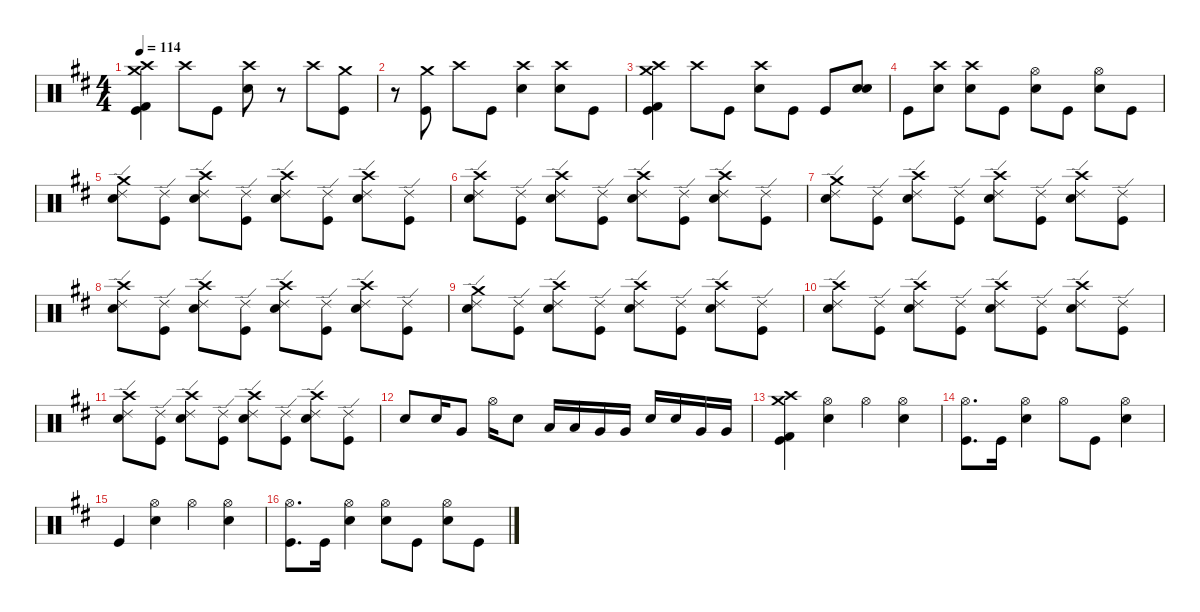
\defaultSystemsLayout 4
\hideDynamics
\bracketExtendMode nobrackets
\singleTrackTrackNamePolicy hidden
\multiTrackTrackNamePolicy hidden
\firstSystemTrackNameMode fullname
\firstSystemTrackNameOrientation horizontal
\otherSystemsTrackNameOrientation horizontal
\track ("Aaron Harris" "drm.") {instrument percussion}
\staff {score}
\articulation defaults
\ts (4 4)
\tempo 114
\clef neutral
\ks bminor
("Crash medium (hit)"{acc forcenatural} "Crash high (hit)"{acc forcenatural} "Kick (hit) 2"{acc forcenatural} "Kick (hit)"{acc forcenatural}).4{dy f beam Down} "Crash high (hit)"{acc forcenatural}.8{beam Down} "Kick (hit)"{acc forcenatural}.8{beam Down} ("Crash high (hit)"{acc forcenatural} "Snare (hit) 2"{acc forcenatural}).8{beam Down} r.8{beam Down} "Crash high (hit)"{acc forcenatural}.8{beam Down} ("Crash medium (hit)"{acc forcenatural} "Kick (hit)"{acc forcenatural}).8{dy ff beam Down} |
r.8{beam Down} ("Crash medium (hit)"{acc forcenatural} "Kick (hit)"{acc forcenatural}).8{dy f beam Down} "Crash high (hit)"{acc forcenatural}.8{beam Down} "Kick (hit)"{acc forcenatural}.8{beam Down} ("Crash high (hit)"{acc forcenatural} "Snare (hit) 2"{acc forcenatural}).4{beam Down} ("Crash high (hit)"{acc forcenatural} "Snare (hit) 2"{acc forcenatural}).8{beam Down} "Kick (hit)"{acc forcenatural}.8{beam Down} |
("Crash medium (hit)"{acc forcenatural} "Crash high (hit)"{acc forcenatural} "Kick (hit) 2"{acc forcenatural} "Kick (hit)"{acc forcenatural}).4{beam Down} "Crash high (hit)"{acc forcenatural}.8{beam Down} "Kick (hit)"{acc forcenatural}.8{beam Down} ("Crash high (hit)"{acc forcenatural} "Snare (hit) 2"{acc forcenatural}).8{dy ff beam Down} "Kick (hit)"{acc forcenatural}.8{beam Down} "Kick (hit)"{acc forcenatural}.8{beam Up} ("Snare (hit) 2"{acc forcenatural} "Snare (hit) 2"{acc forcenatural}).8{beam Up} |
"Kick (hit)"{acc forcenatural}.8{beam Down} ("Crash high (hit)"{acc forcenatural} "Snare (hit) 2"{acc forcenatural}).8{beam Down} ("Crash high (hit)"{acc forcenatural} "Snare (hit) 2"{acc forcenatural}).8{beam Down} "Kick (hit)"{acc forcenatural}.8{dy f beam Down} ("Hi-Hat (open)"{acc forcenatural} "Snare (hit) 2"{acc forcenatural}).8{dy ff beam Down} "Kick (hit)"{acc forcenatural}.8{dy f beam Down} ("Hi-Hat (open)"{acc forcenatural} "Snare (hit) 2"{acc forcenatural}).8{beam Down} "Kick (hit)"{acc forcenatural}.8{beam Down} |
("Crash medium (hit)"{acc forcenatural} "Ride (edge) 2"{acc forcenatural} "Snare (hit) 2"{acc forcenatural}).8{beam Down} ("Ride (edge) 2"{acc forcenatural} "Kick (hit)"{acc forcenatural}).8{beam Down} ("Crash high (hit)"{acc forcenatural} "Ride (edge) 2"{acc forcenatural} "Snare (hit) 2"{acc forcenatural}).8{beam Down} ("Ride (edge) 2"{acc forcenatural} "Kick (hit)"{acc forcenatural}).8{beam Down} ("Crash high (hit)"{acc forcenatural} "Ride (edge) 2"{acc forcenatural} "Snare (hit) 2"{acc forcenatural}).8{beam Down} ("Ride (edge) 2"{acc forcenatural} "Kick (hit)"{acc forcenatural}).8{beam Down} ("Crash high (hit)"{acc forcenatural} "Ride (edge) 2"{acc forcenatural} "Snare (hit) 2"{acc forcenatural}).8{beam Down} ("Ride (edge) 2"{acc forcenatural} "Kick (hit)"{acc forcenatural}).8{beam Down} |
("Crash high (hit)"{acc forcenatural} "Ride (edge) 2"{acc forcenatural} "Snare (hit) 2"{acc forcenatural}).8{beam Down} ("Ride (edge) 2"{acc forcenatural} "Kick (hit)"{acc forcenatural}).8{beam Down} ("Crash high (hit)"{acc forcenatural} "Ride (edge) 2"{acc forcenatural} "Snare (hit) 2"{acc forcenatural}).8{beam Down} ("Ride (edge) 2"{acc forcenatural} "Kick (hit)"{acc forcenatural}).8{beam Down} ("Crash high (hit)"{acc forcenatural} "Ride (edge) 2"{acc forcenatural} "Snare (hit) 2"{acc forcenatural}).8{beam Down} ("Ride (edge) 2"{acc forcenatural} "Kick (hit)"{acc forcenatural}).8{beam Down} ("Crash high (hit)"{acc forcenatural} "Ride (edge) 2"{acc forcenatural} "Snare (hit) 2"{acc forcenatural}).8{beam Down} ("Ride (edge) 2"{acc forcenatural} "Kick (hit)"{acc forcenatural}).8{beam Down} |
("Crash medium (hit)"{acc forcenatural} "Ride (edge) 2"{acc forcenatural} "Snare (hit) 2"{acc forcenatural}).8{beam Down} ("Ride (edge) 2"{acc forcenatural} "Kick (hit)"{acc forcenatural}).8{beam Down} ("Crash high (hit)"{acc forcenatural} "Ride (edge) 2"{acc forcenatural} "Snare (hit) 2"{acc forcenatural}).8{beam Down} ("Ride (edge) 2"{acc forcenatural} "Kick (hit)"{acc forcenatural}).8{beam Down} ("Crash high (hit)"{acc forcenatural} "Ride (edge) 2"{acc forcenatural} "Snare (hit) 2"{acc forcenatural}).8{beam Down} ("Ride (edge) 2"{acc forcenatural} "Kick (hit)"{acc forcenatural}).8{beam Down} ("Crash high (hit)"{acc forcenatural} "Ride (edge) 2"{acc forcenatural} "Snare (hit) 2"{acc forcenatural}).8{beam Down} ("Ride (edge) 2"{acc forcenatural} "Kick (hit)"{acc forcenatural}).8{beam Down} |
("Crash high (hit)"{acc forcenatural} "Ride (edge) 2"{acc forcenatural} "Snare (hit) 2"{acc forcenatural}).8{beam Down} ("Ride (edge) 2"{acc forcenatural} "Kick (hit)"{acc forcenatural}).8{beam Down} ("Crash high (hit)"{acc forcenatural} "Ride (edge) 2"{acc forcenatural} "Snare (hit) 2"{acc forcenatural}).8{beam Down} ("Ride (edge) 2"{acc forcenatural} "Kick (hit)"{acc forcenatural}).8{beam Down} ("Crash high (hit)"{acc forcenatural} "Ride (edge) 2"{acc forcenatural} "Snare (hit) 2"{acc forcenatural}).8{beam Down} ("Ride (edge) 2"{acc forcenatural} "Kick (hit)"{acc forcenatural}).8{beam Down} ("Crash high (hit)"{acc forcenatural} "Ride (edge) 2"{acc forcenatural} "Snare (hit) 2"{acc forcenatural}).8{beam Down} ("Ride (edge) 2"{acc forcenatural} "Kick (hit)"{acc forcenatural}).8{beam Down} |
("Crash medium (hit)"{acc forcenatural} "Ride (edge) 2"{acc forcenatural} "Snare (hit) 2"{acc forcenatural}).8{beam Down} ("Ride (edge) 2"{acc forcenatural} "Kick (hit)"{acc forcenatural}).8{beam Down} ("Crash high (hit)"{acc forcenatural} "Ride (edge) 2"{acc forcenatural} "Snare (hit) 2"{acc forcenatural}).8{beam Down} ("Ride (edge) 2"{acc forcenatural} "Kick (hit)"{acc forcenatural}).8{beam Down} ("Crash high (hit)"{acc forcenatural} "Ride (edge) 2"{acc forcenatural} "Snare (hit) 2"{acc forcenatural}).8{beam Down} ("Ride (edge) 2"{acc forcenatural} "Kick (hit)"{acc forcenatural}).8{beam Down} ("Crash high (hit)"{acc forcenatural} "Ride (edge) 2"{acc forcenatural} "Snare (hit) 2"{acc forcenatural}).8{beam Down} ("Ride (edge) 2"{acc forcenatural} "Kick (hit)"{acc forcenatural}).8{beam Down} |
("Crash high (hit)"{acc forcenatural} "Ride (edge) 2"{acc forcenatural} "Snare (hit) 2"{acc forcenatural}).8{beam Down} ("Ride (edge) 2"{acc forcenatural} "Kick (hit)"{acc forcenatural}).8{beam Down} ("Crash high (hit)"{acc forcenatural} "Ride (edge) 2"{acc forcenatural} "Snare (hit) 2"{acc forcenatural}).8{beam Down} ("Ride (edge) 2"{acc forcenatural} "Kick (hit)"{acc forcenatural}).8{beam Down} ("Crash high (hit)"{acc forcenatural} "Ride (edge) 2"{acc forcenatural} "Snare (hit) 2"{acc forcenatural}).8{beam Down} ("Ride (edge) 2"{acc forcenatural} "Kick (hit)"{acc forcenatural}).8{beam Down} ("Crash high (hit)"{acc forcenatural} "Ride (edge) 2"{acc forcenatural} "Snare (hit) 2"{acc forcenatural}).8{beam Down} ("Ride (edge) 2"{acc forcenatural} "Kick (hit)"{acc forcenatural}).8{beam Down} |
("Crash high (hit)"{acc forcenatural} "Ride (edge) 2"{acc forcenatural} "Snare (hit) 2"{acc forcenatural}).8{beam Down} ("Ride (edge) 2"{acc forcenatural} "Kick (hit)"{acc forcenatural}).8{beam Down} ("Crash high (hit)"{acc forcenatural} "Ride (edge) 2"{acc forcenatural} "Snare (hit) 2"{acc forcenatural}).8{beam Down} ("Ride (edge) 2"{acc forcenatural} "Kick (hit)"{acc forcenatural}).8{beam Down} ("Crash high (hit)"{acc forcenatural} "Ride (edge) 2"{acc forcenatural} "Snare (hit) 2"{acc forcenatural}).8{beam Down} ("Ride (edge) 2"{acc forcenatural} "Kick (hit)"{acc forcenatural}).8{beam Down} ("Crash high (hit)"{acc forcenatural} "Ride (edge) 2"{acc forcenatural} "Snare (hit) 2"{acc forcenatural}).8{beam Down} ("Ride (edge) 2"{acc forcenatural} "Kick (hit)"{acc forcenatural}).8{beam Down} |
"Snare (hit) 2"{acc forcenatural}.8{beam Up} "Snare (hit) 2"{acc forcenatural}.16{beam Up} "Very Low Tom (hit)"{acc forcenatural}.8{beam Up} "Hi-Hat (open)"{acc forcenatural}.16{beam Down} "Snare (hit) 2"{acc forcenatural}.8{beam Down} "Low Tom (hit)"{acc forcenatural}.16{beam Up} "Low Tom (hit)"{acc forcenatural}.16{beam Up} "Very Low Tom (hit)"{acc forcenatural}.16{beam Up} "Very Low Tom (hit)"{acc forcenatural}.16{beam Up} "Snare (hit) 2"{acc forcenatural}.16{beam Up} "Snare (hit) 2"{acc forcenatural}.16{beam Up} "Very Low Tom (hit)"{acc forcenatural}.16{beam Up} "Very Low Tom (hit)"{acc forcenatural}.16{beam Up} |
("Crash medium (hit)"{acc forcenatural} "Crash high (hit)"{acc forcenatural} "Kick (hit) 2"{acc forcenatural} "Kick (hit)"{acc forcenatural}).4{beam Down} ("Hi-Hat (open)"{acc forcenatural} "Snare (hit) 2"{acc forcenatural}).4{beam Down} "Hi-Hat (open)"{acc forcenatural}.4{beam Down} ("Hi-Hat (open)"{acc forcenatural} "Snare (hit) 2"{acc forcenatural}).4{beam Down} |
("Hi-Hat (open)"{acc forcenatural} "Kick (hit)"{acc forcenatural}).8{d beam Down} "Kick (hit)"{acc forcenatural}.16{beam Down} ("Hi-Hat (open)"{acc forcenatural} "Snare (hit) 2"{acc forcenatural}).4{beam Down} "Hi-Hat (open)"{acc forcenatural}.8{beam Down} "Kick (hit)"{acc forcenatural}.8{beam Down} ("Hi-Hat (open)"{acc forcenatural} "Snare (hit) 2"{acc forcenatural}).4{beam Down} |
"Kick (hit)"{acc forcenatural}.4{beam Up} ("Hi-Hat (open)"{acc forcenatural} "Snare (hit) 2"{acc forcenatural}).4{beam Down} "Hi-Hat (open)"{acc forcenatural}.4{beam Down} ("Hi-Hat (open)"{acc forcenatural} "Snare (hit) 2"{acc forcenatural}).4{beam Down} |
("Hi-Hat (open)"{acc forcenatural} "Kick (hit)"{acc forcenatural}).8{d beam Down} "Kick (hit)"{acc forcenatural}.16{beam Down} ("Hi-Hat (open)"{acc forcenatural} "Snare (hit) 2"{acc forcenatural}).4{beam Down} ("Hi-Hat (open)"{acc forcenatural} "Snare (hit) 2"{acc forcenatural}).8{beam Down} "Kick (hit)"{acc forcenatural}.8{beam Down} ("Hi-Hat (open)"{acc forcenatural} "Snare (hit) 2"{acc forcenatural}).8{beam Down} "Kick (hit)"{acc forcenatural}.8{beam Down}
